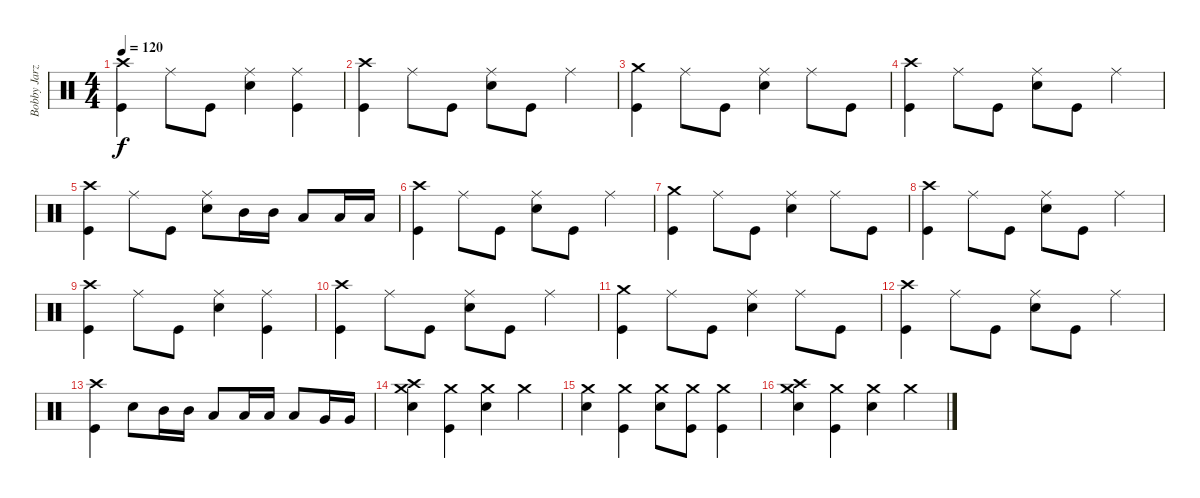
\track ("Bobby Jarzombek" "Bobby Jarz") {instrument percussion}
\staff {score}
\articulation defaults
\ts (4 4)
\tempo 120
\clef neutral
\ks c
("Crash high (hit)" "Kick (hit)").4{dy f} "Ride (middle)".8 "Kick (hit)".8 ("Ride (middle)" "Electric Snare (hit)").4 ("Ride (middle)" "Kick (hit)").4 |
("Crash high (hit)" "Kick (hit)").4 "Ride (middle)".8 "Kick (hit)".8 ("Ride (middle)" "Electric Snare (hit)").8 "Kick (hit)".8 "Ride (middle)".4 |
("Crash medium (hit)" "Kick (hit)").4 "Ride (middle)".8 "Kick (hit)".8 ("Ride (middle)" "Electric Snare (hit)").4 "Ride (middle)".8 "Kick (hit)".8 |
("Crash high (hit)" "Kick (hit)").4 "Ride (middle)".8 "Kick (hit)".8 ("Ride (middle)" "Electric Snare (hit)").8 "Kick (hit)".8 "Ride (middle)".4 |
("Crash high (hit)" "Kick (hit)").4 "Ride (middle)".8 "Kick (hit)".8 ("Ride (middle)" "Electric Snare (hit)").8 "Mid Tom (hit)".16 "Mid Tom (hit)".16 "Low Tom (hit)".8 "Low Tom (hit)".16 "Low Tom (hit)".16 |
("Crash high (hit)" "Kick (hit)").4 "Ride (middle)".8 "Kick (hit)".8 ("Ride (middle)" "Electric Snare (hit)").8 "Kick (hit)".8 "Ride (middle)".4 |
("Crash medium (hit)" "Kick (hit)").4 "Ride (middle)".8 "Kick (hit)".8 ("Ride (middle)" "Electric Snare (hit)").4 "Ride (middle)".8 "Kick (hit)".8 |
("Crash high (hit)" "Kick (hit)").4 "Ride (middle)".8 "Kick (hit)".8 ("Ride (middle)" "Electric Snare (hit)").8 "Kick (hit)".8 "Ride (middle)".4 |
("Crash high (hit)" "Kick (hit)").4 "Ride (middle)".8 "Kick (hit)".8 ("Ride (middle)" "Electric Snare (hit)").4 ("Ride (middle)" "Kick (hit)").4 |
("Crash high (hit)" "Kick (hit)").4 "Ride (middle)".8 "Kick (hit)".8 ("Ride (middle)" "Electric Snare (hit)").8 "Kick (hit)".8 "Ride (middle)".4 |
("Crash medium (hit)" "Kick (hit)").4 "Ride (middle)".8 "Kick (hit)".8 ("Ride (middle)" "Electric Snare (hit)").4 "Ride (middle)".8 "Kick (hit)".8 |
("Crash high (hit)" "Kick (hit)").4 "Ride (middle)".8 "Kick (hit)".8 ("Ride (middle)" "Electric Snare (hit)").8 "Kick (hit)".8 "Ride (middle)".4 |
("Crash high (hit)" "Kick (hit)").4 "Electric Snare (hit)".8 "Mid Tom (hit)".16 "Mid Tom (hit)".16 "Low Tom (hit)".8 "Low Tom (hit)".16 "Low Tom (hit)".16 "Low Tom (hit)".8 "Very Low Tom (hit)".16 "Very Low Tom (hit)".16 |
("Crash high (hit)" "Crash medium (hit)" "Electric Snare (hit)").4 ("Crash medium (hit)" "Kick (hit)").4 ("Crash medium (hit)" "Electric Snare (hit)").4 "Crash medium (hit)".4 |
("Crash medium (hit)" "Electric Snare (hit)").4 ("Crash medium (hit)" "Kick (hit)").4 ("Crash medium (hit)" "Electric Snare (hit)").8 ("Crash medium (hit)" "Kick (hit)").8 ("Crash medium (hit)" "Kick (hit)").4 |
("Crash high (hit)" "Crash medium (hit)" "Electric Snare (hit)").4 ("Crash medium (hit)" "Kick (hit)").4 ("Crash medium (hit)" "Electric Snare (hit)").4 "Crash medium (hit)".4
